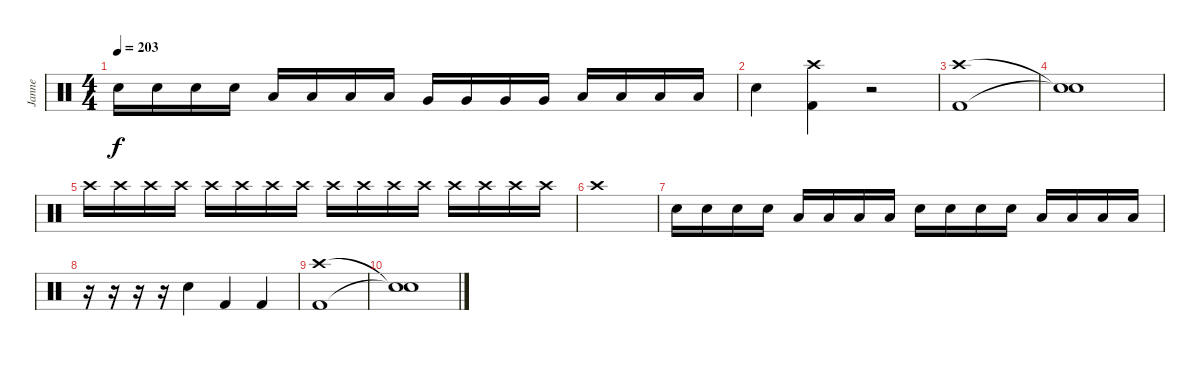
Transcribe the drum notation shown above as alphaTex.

\track ("Janne" "Janne") {instrument percussion}
\staff {score}
\articulation defaults
\ts (4 4)
\tempo 203
\clef neutral
\ks c "Electric Snare (hit)".16{dy f} "Electric Snare (hit)".16 "Electric Snare (hit)".16 "Electric Snare (hit)".16 "Low Tom (hit)".16 "Low Tom (hit)".16 "Low Tom (hit)".16 "Low Tom (hit)".16 "Very Low Tom (hit)".16 "Very Low Tom (hit)".16 "Very Low Tom (hit)".16 "Very Low Tom (hit)".16 "Low Floor Tom (hit)".16 "Low Floor Tom (hit)".16 "Low Floor Tom (hit)".16 "Low Floor Tom (hit)".16
|
"Electric Snare (hit)".4 ("Crash high (hit)" "Kick (hit) 2").4 r.2 |
("Crash high (hit)" "Kick (hit) 2").1 |
("Snare (hit)"{t} "Snare (hit)"{t}).1 |
"Crash high (hit)".16 "Crash high (hit)".16 "Crash high (hit)".16 "Crash high (hit)".16 "Crash high (hit)".16 "Crash high (hit)".16 "Crash high (hit)".16 "Crash high (hit)".16 "Crash high (hit)".16 "Crash high (hit)".16 "Crash high (hit)".16 "Crash high (hit)".16 "Crash high (hit)".16 "Crash high (hit)".16 "Crash high (hit)".16 "Crash high (hit)".16 |
"Crash high (hit)".1 |
"Electric Snare (hit)".16 "Electric Snare (hit)".16 "Electric Snare (hit)".16 "Electric Snare (hit)".16 "Low Floor Tom (hit)".16 "Low Floor Tom (hit)".16 "Low Floor Tom (hit)".16 "Low Floor Tom (hit)".16 "Electric Snare (hit)".16 "Electric Snare (hit)".16 "Electric Snare (hit)".16 "Electric Snare (hit)".16 "Low Floor Tom (hit)".16 "Low Floor Tom (hit)".16 "Low Floor Tom (hit)".16 "Low Floor Tom (hit)".16 |
r.16 r.16 r.16 r.16 "Electric Snare (hit)".4 "Kick (hit) 2".4 "Kick (hit) 2".4 |
("Crash high (hit)" "Kick (hit) 2").1 |
("Snare (hit)"{t} "Snare (hit)"{t}).1
